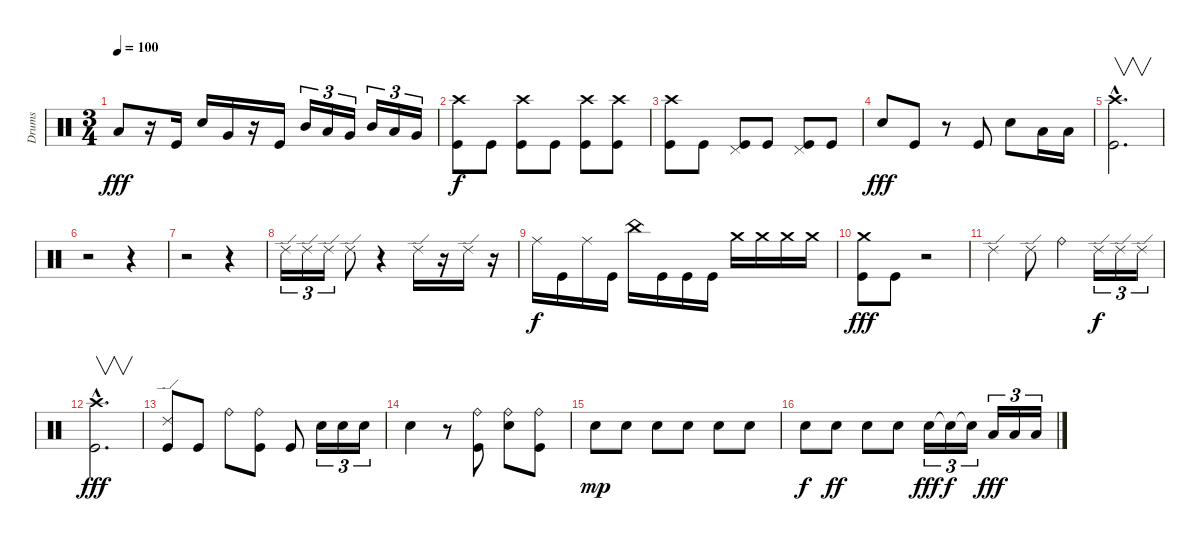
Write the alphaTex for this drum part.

\track ("Drums" "Drums") {instrument percussion}
\staff {score}
\articulation defaults
\ts (3 4)
\tempo 100
\clef neutral
\ks c "Low Tom (hit)".8{dy fff}
r.16 "Kick (hit)".16 "Snare (hit) 2".16 "Very Low Tom (hit)".16 r.16 "Kick (hit)".16 "Mid Tom (hit)".16{tu (3 2)} "Low Tom (hit)".16{tu (3 2)} "Very Low Tom (hit)".16{tu (3 2)} "Mid Tom (hit)".16{tu (3 2)} "Low Tom (hit)".16{tu (3 2)} "Very Low Tom (hit)".16{tu (3 2)} |
("Crash high (hit)" "Kick (hit)").8{dy f} "Kick (hit)".8 ("Crash high (hit)" "Kick (hit)").8 "Kick (hit)".8 ("Crash high (hit)" "Kick (hit)").8 ("Crash high (hit)" "Kick (hit)").8 |
("Crash high (hit)" "Kick (hit)").8 "Kick (hit)".8 ("Pedal Hi-Hat (hit)" "Kick (hit)").8 "Kick (hit)".8 ("Pedal Hi-Hat (hit)" "Kick (hit)").8 "Kick (hit)".8 |
"Snare (hit) 2".8{dy fff} "Kick (hit)".8 r.8 "Kick (hit)".8 "Snare (hit) 2".8 "Low Tom (hit)".16 "Low Tom (hit)".16 |
("Crash high (hit)"{hac} "Kick (hit)"{hac}).2{v d} |
r.2 r.4 |
r.2 r.4 |
"Ride (edge) 2".16{tu (3 2)} "Ride (edge) 2".16{tu (3 2)} "Ride (edge) 2".16{tu (3 2)} "Ride (edge) 2".8 r.4 "Ride (edge) 2".16 r.16 "Ride (edge) 2".16 r.16 |
"Ride (middle)".16{dy f} "Kick (hit)".16 "Ride (middle)".16 "Kick (hit)".16 "China (hit)".16 "Kick (hit)".16 "Kick (hit)".16 "Kick (hit)".16 "Crash medium (hit)".16 "Crash medium (hit)".16 "Crash medium (hit)".16 "Crash medium (hit)".16 |
("Crash medium (hit)" "Kick (hit)").8{dy fff} "Kick (hit)".8 r.2 |
"Ride (edge) 2".4 "Ride (edge) 2".8 "Ride (bell)".4 "Ride (edge) 2".16{tu (3 2) dy f} "Ride (edge) 2".16{tu (3 2)} "Ride (edge) 2".16{tu (3 2)} |
("Crash high (hit)"{hac} "Kick (hit)"{hac}).2{v d dy fff} |
("Ride (edge) 2" "Kick (hit)").8 "Kick (hit)".8 "Ride (bell)".8 ("Ride (bell)" "Kick (hit)").8 "Kick (hit)".8 "Snare (hit) 2".16{tu (3 2)} "Snare (hit) 2".16{tu (3 2)} "Snare (hit) 2".16{tu (3 2)} |
"Snare (hit) 2".4 r.8 ("Ride (bell)" "Kick (hit)").8 ("Ride (bell)" "Snare (hit) 2").8 ("Ride (bell)" "Kick (hit)").8 |
"Snare (hit) 2".8{dy mp} "Snare (hit) 2".8 "Snare (hit) 2".8 "Snare (hit) 2".8 "Snare (hit) 2".8 "Snare (hit) 2".8 |
"Snare (hit) 2".8{dy f} "Snare (hit) 2".8{dy ff} "Snare (hit) 2".8 "Snare (hit) 2".8 "Snare (hit) 2".16{tu (3 2) dy fff} "Snare (hit) 2"{t}.16{tu (3 2) dy f} "Snare (hit) 2"{t}.16{tu (3 2)} "Low Tom (hit)".16{tu (3 2) dy fff} "Low Tom (hit)".16{tu (3 2)} "Low Tom (hit)".16{tu (3 2)}
